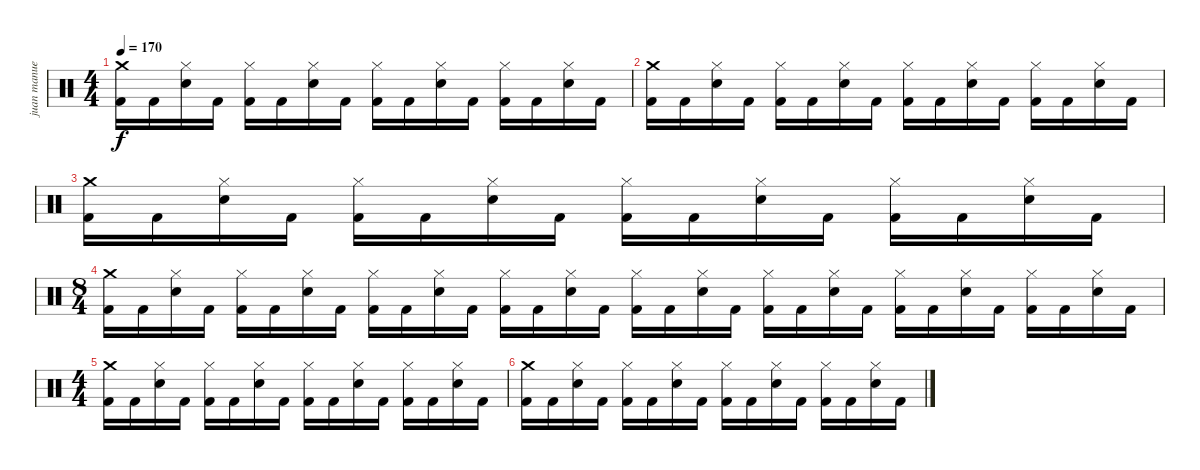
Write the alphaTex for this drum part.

\track ("juan manuel" "juan manue") {instrument percussion}
\staff {score}
\articulation defaults
\ts (4 4)
\tempo 170
\clef neutral
\ks c
("Crash medium (hit)" "Kick (hit) 2").16{dy f} "Kick (hit) 2".16 ("Hi-Hat (closed)" "Electric Snare (hit)").16 "Kick (hit) 2".16 ("Hi-Hat (closed)" "Kick (hit) 2").16 "Kick (hit) 2".16 ("Hi-Hat (closed)" "Electric Snare (hit)").16 "Kick (hit) 2".16 ("Hi-Hat (closed)" "Kick (hit) 2").16 "Kick (hit) 2".16 ("Hi-Hat (closed)" "Electric Snare (hit)").16 "Kick (hit) 2".16 ("Hi-Hat (closed)" "Kick (hit) 2").16 "Kick (hit) 2".16 ("Hi-Hat (closed)" "Electric Snare (hit)").16 "Kick (hit) 2".16 |
("Crash medium (hit)" "Kick (hit) 2").16 "Kick (hit) 2".16 ("Hi-Hat (closed)" "Electric Snare (hit)").16 "Kick (hit) 2".16 ("Hi-Hat (closed)" "Kick (hit) 2").16 "Kick (hit) 2".16 ("Hi-Hat (closed)" "Electric Snare (hit)").16 "Kick (hit) 2".16 ("Hi-Hat (closed)" "Kick (hit) 2").16 "Kick (hit) 2".16 ("Hi-Hat (closed)" "Electric Snare (hit)").16 "Kick (hit) 2".16 ("Hi-Hat (closed)" "Kick (hit) 2").16 "Kick (hit) 2".16 ("Hi-Hat (closed)" "Electric Snare (hit)").16 "Kick (hit) 2".16 |
("Crash medium (hit)" "Kick (hit) 2").16 "Kick (hit) 2".16 ("Hi-Hat (closed)" "Electric Snare (hit)").16 "Kick (hit) 2".16 ("Hi-Hat (closed)" "Kick (hit) 2").16 "Kick (hit) 2".16 ("Hi-Hat (closed)" "Electric Snare (hit)").16 "Kick (hit) 2".16 ("Hi-Hat (closed)" "Kick (hit) 2").16 "Kick (hit) 2".16 ("Hi-Hat (closed)" "Electric Snare (hit)").16 "Kick (hit) 2".16 ("Hi-Hat (closed)" "Kick (hit) 2").16 "Kick (hit) 2".16 ("Hi-Hat (closed)" "Electric Snare (hit)").16 "Kick (hit) 2".16 |
\ts (8 4)
("Crash medium (hit)" "Kick (hit) 2").16 "Kick (hit) 2".16 ("Hi-Hat (closed)" "Electric Snare (hit)").16 "Kick (hit) 2".16 ("Hi-Hat (closed)" "Kick (hit) 2").16 "Kick (hit) 2".16 ("Hi-Hat (closed)" "Electric Snare (hit)").16 "Kick (hit) 2".16 ("Hi-Hat (closed)" "Kick (hit) 2").16 "Kick (hit) 2".16 ("Hi-Hat (closed)" "Electric Snare (hit)").16 "Kick (hit) 2".16 ("Hi-Hat (closed)" "Kick (hit) 2").16 "Kick (hit) 2".16 ("Hi-Hat (closed)" "Electric Snare (hit)").16 "Kick (hit) 2".16 ("Hi-Hat (closed)" "Kick (hit) 2").16 "Kick (hit) 2".16 ("Hi-Hat (closed)" "Electric Snare (hit)").16 "Kick (hit) 2".16 ("Hi-Hat (closed)" "Kick (hit) 2").16 "Kick (hit) 2".16 ("Hi-Hat (closed)" "Electric Snare (hit)").16 "Kick (hit) 2".16 ("Hi-Hat (closed)" "Kick (hit) 2").16 "Kick (hit) 2".16 ("Hi-Hat (closed)" "Electric Snare (hit)").16 "Kick (hit) 2".16 ("Hi-Hat (closed)" "Kick (hit) 2").16 "Kick (hit) 2".16 ("Hi-Hat (closed)" "Electric Snare (hit)").16 "Kick (hit) 2".16 |
\ts (4 4)
("Crash medium (hit)" "Kick (hit) 2").16 "Kick (hit) 2".16 ("Hi-Hat (closed)" "Electric Snare (hit)").16 "Kick (hit) 2".16 ("Hi-Hat (closed)" "Kick (hit) 2").16 "Kick (hit) 2".16 ("Hi-Hat (closed)" "Electric Snare (hit)").16 "Kick (hit) 2".16 ("Hi-Hat (closed)" "Kick (hit) 2").16 "Kick (hit) 2".16 ("Hi-Hat (closed)" "Electric Snare (hit)").16 "Kick (hit) 2".16 ("Hi-Hat (closed)" "Kick (hit) 2").16 "Kick (hit) 2".16 ("Hi-Hat (closed)" "Electric Snare (hit)").16 "Kick (hit) 2".16 |
("Crash medium (hit)" "Kick (hit) 2").16 "Kick (hit) 2".16 ("Hi-Hat (closed)" "Electric Snare (hit)").16 "Kick (hit) 2".16 ("Hi-Hat (closed)" "Kick (hit) 2").16 "Kick (hit) 2".16 ("Hi-Hat (closed)" "Electric Snare (hit)").16 "Kick (hit) 2".16 ("Hi-Hat (closed)" "Kick (hit) 2").16 "Kick (hit) 2".16 ("Hi-Hat (closed)" "Electric Snare (hit)").16 "Kick (hit) 2".16 ("Hi-Hat (closed)" "Kick (hit) 2").16 "Kick (hit) 2".16 ("Hi-Hat (closed)" "Electric Snare (hit)").16 "Kick (hit) 2".16
